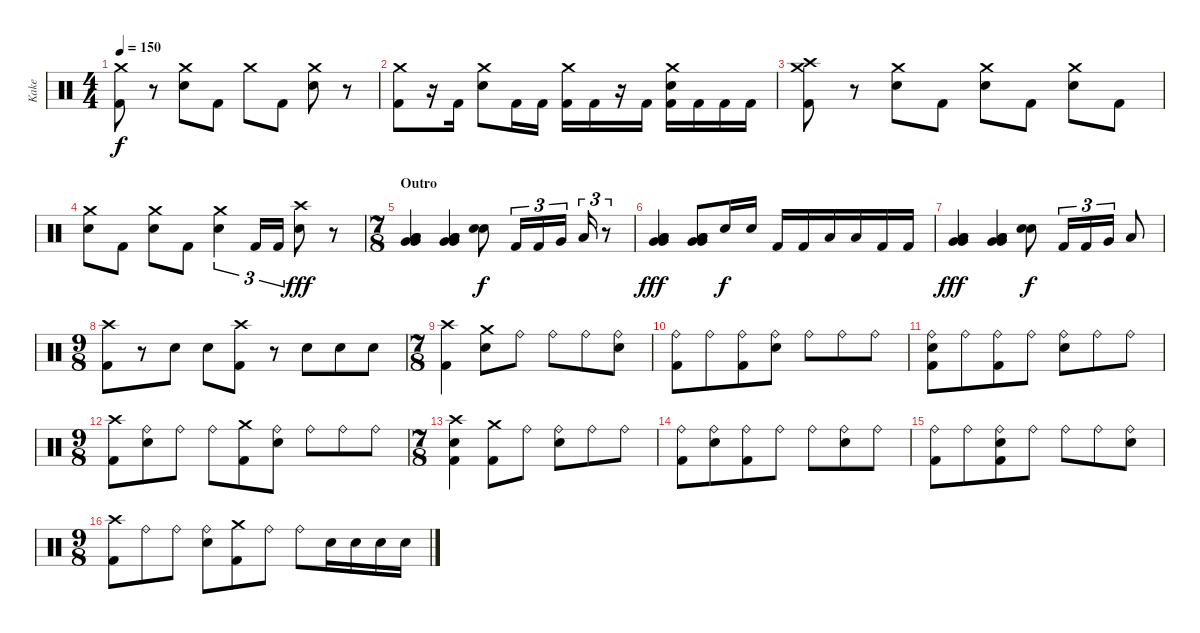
\track ("Kake" "Kake") {instrument percussion}
\staff {score}
\articulation defaults
\ts (4 4)
\tempo 150
\clef neutral
\ks c
("Crash medium (hit)" "Kick (hit) 2").8{dy f} r.8 ("Crash medium (hit)" "Electric Snare (hit)").8 "Kick (hit) 2".8 "Crash medium (hit)".8 "Kick (hit) 2".8 ("Crash medium (hit)" "Electric Snare (hit)").8 r.8 |
("Crash medium (hit)" "Kick (hit) 2").8 r.16 "Kick (hit) 2".16 ("Crash medium (hit)" "Electric Snare (hit)").8 "Kick (hit) 2".16 "Kick (hit) 2".16 ("Crash medium (hit)" "Kick (hit) 2").16 "Kick (hit) 2".16 r.16 "Kick (hit) 2".16 ("Crash medium (hit)" "Electric Snare (hit)" "Kick (hit) 2").16 "Kick (hit) 2".16 "Kick (hit) 2".16 "Kick (hit) 2".16 |
("Crash medium (hit)" "Crash high (hit)" "Kick (hit) 2").8 r.8 ("Crash medium (hit)" "Electric Snare (hit)").8 "Kick (hit) 2".8 ("Crash medium (hit)" "Electric Snare (hit)").8 "Kick (hit) 2".8 ("Crash medium (hit)" "Electric Snare (hit)").8 "Kick (hit) 2".8 |
("Crash medium (hit)" "Electric Snare (hit)").8 "Kick (hit) 2".8 ("Crash medium (hit)" "Electric Snare (hit)").8 "Kick (hit) 2".8 ("Crash medium (hit)" "Electric Snare (hit)").4{tu (3 2)} "Kick (hit) 2".16{tu (3 2)} "Kick (hit) 2".16{tu (3 2)} ("Crash high (hit)" "Electric Snare (hit)").8{dy fff} r.8 |
\ts (7 8)
\section ("" "Outro")
("Very Low Tom (hit)" "Very Low Tom (hit)" "Low Floor Tom (hit)" "Low Floor Tom (hit)").4 ("Very Low Tom (hit)" "Very Low Tom (hit)" "Low Floor Tom (hit)" "Low Floor Tom (hit)").4 ("Electric Snare (hit)" "Electric Snare (hit)").8{dy f} "Kick (hit) 2".16{tu (3 2)} "Kick (hit) 2".16{tu (3 2)} "Very Low Tom (hit)".16{tu (3 2)} "Low Tom (hit)".16{tu (3 2)} r.8{tu (3 2)} |
("Very Low Tom (hit)" "Very Low Tom (hit)" "Low Floor Tom (hit)" "Low Floor Tom (hit)").4{dy fff} ("Very Low Tom (hit)" "Very Low Tom (hit)" "Low Floor Tom (hit)" "Low Floor Tom (hit)").8 "Electric Snare (hit)".16{dy f} "Electric Snare (hit)".16 "Kick (hit) 2".16 "Kick (hit) 2".16 "Low Tom (hit)".16 "Low Tom (hit)".16 "Kick (hit) 2".16 "Kick (hit) 2".16 |
("Very Low Tom (hit)" "Very Low Tom (hit)" "Low Floor Tom (hit)" "Low Floor Tom (hit)").4{dy fff} ("Very Low Tom (hit)" "Very Low Tom (hit)" "Low Floor Tom (hit)" "Low Floor Tom (hit)").4 ("Electric Snare (hit)" "Electric Snare (hit)").8{dy f} "Kick (hit) 2".16{tu (3 2)} "Kick (hit) 2".16{tu (3 2)} "Very Low Tom (hit)".16{tu (3 2)} "Low Tom (hit)".8 |
\ts (9 8)
("Crash high (hit)" "Kick (hit) 2").8 r.8 "Electric Snare (hit)".8 "Electric Snare (hit)".8 ("Crash high (hit)" "Kick (hit) 2").8 r.8 "Electric Snare (hit)".8 "Electric Snare (hit)".8 "Electric Snare (hit)".8 |
\ts (7 8)
("Crash high (hit)" "Kick (hit) 2").4 ("Crash medium (hit)" "Electric Snare (hit)").8 "Ride (bell)".8 "Ride (bell)".8 "Ride (bell)".8 ("Ride (bell)" "Electric Snare (hit)").8 |
("Ride (bell)" "Kick (hit) 2").8 "Ride (bell)".8 ("Ride (bell)" "Kick (hit) 2").8 ("Ride (bell)" "Electric Snare (hit)").8 "Ride (bell)".8 "Ride (bell)".8 "Ride (bell)".8 |
("Ride (bell)" "Electric Snare (hit)" "Kick (hit) 2").8 "Ride (bell)".8 ("Ride (bell)" "Kick (hit) 2").8 "Ride (bell)".8 ("Ride (bell)" "Electric Snare (hit)").8 "Ride (bell)".8 "Ride (bell)".8 |
\ts (9 8)
("Crash high (hit)" "Kick (hit) 2").8 ("Ride (bell)" "Electric Snare (hit)").8 "Ride (bell)".8 "Ride (bell)".8 ("Crash medium (hit)" "Kick (hit) 2").8 ("Ride (bell)" "Electric Snare (hit)").8 "Ride (bell)".8 "Ride (bell)".8 "Ride (bell)".8 |
\ts (7 8)
("Crash high (hit)" "Electric Snare (hit)" "Kick (hit) 2").4 ("Crash medium (hit)" "Kick (hit) 2").8 "Ride (bell)".8 ("Ride (bell)" "Electric Snare (hit)").8 "Ride (bell)".8 "Ride (bell)".8 |
("Ride (bell)" "Kick (hit) 2").8 ("Ride (bell)" "Electric Snare (hit)").8 ("Ride (bell)" "Kick (hit) 2").8 "Ride (bell)".8 "Ride (bell)".8 ("Ride (bell)" "Electric Snare (hit)").8 "Ride (bell)".8 |
("Ride (bell)" "Kick (hit) 2").8 "Ride (bell)".8 ("Ride (bell)" "Electric Snare (hit)" "Kick (hit) 2").8 "Ride (bell)".8 "Ride (bell)".8 "Ride (bell)".8 ("Ride (bell)" "Electric Snare (hit)").8 |
\ts (9 8)
("Crash high (hit)" "Kick (hit) 2").8 "Ride (bell)".8 "Ride (bell)".8 ("Ride (bell)" "Electric Snare (hit)").8 ("Crash medium (hit)" "Kick (hit) 2").8 "Ride (bell)".8 "Ride (bell)".8 "Electric Snare (hit)".16 "Electric Snare (hit)".16 "Electric Snare (hit)".16 "Electric Snare (hit)".16
